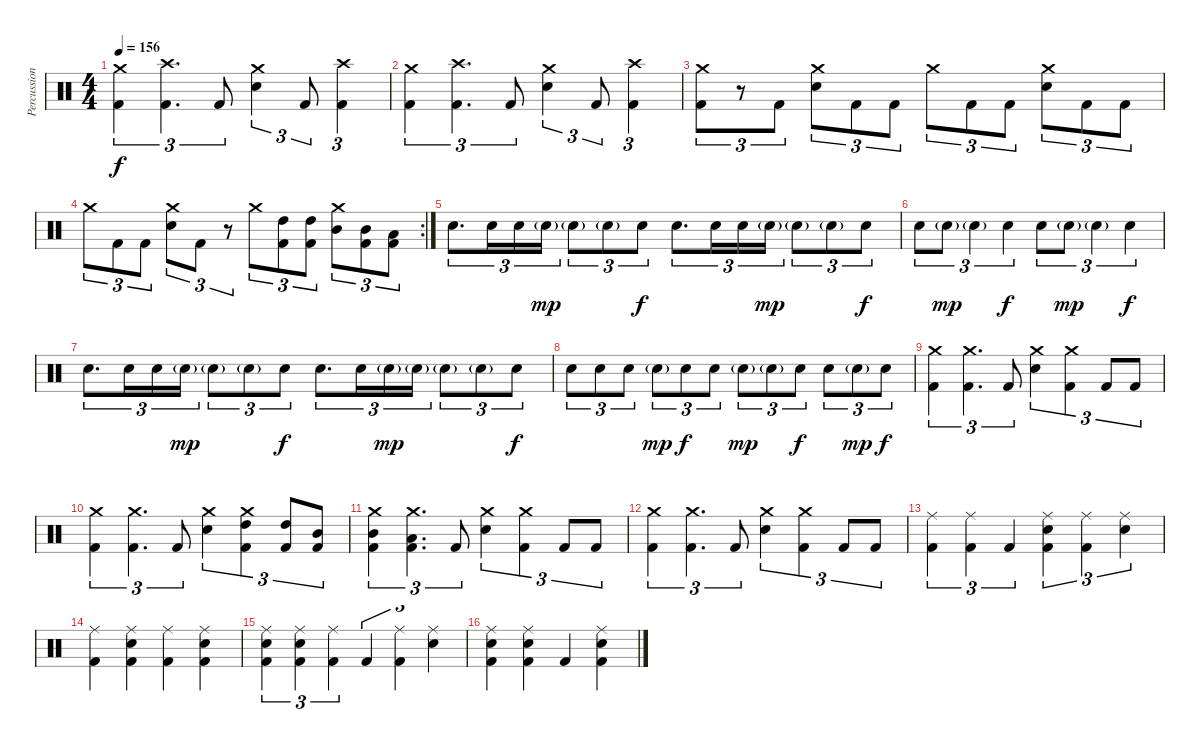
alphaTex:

\track ("Percussion" "Percussion") {instrument percussion}
\staff {score}
\articulation defaults
\ts (4 4)
\tempo 156
\clef neutral
\ks c
("Crash medium (hit)" "Kick (hit) 2").4{tu (3 2) dy f} ("Crash high (hit)" "Kick (hit) 2").4{d tu (3 2)} "Kick (hit) 2".8{tu (3 2)} ("Crash medium (hit)" "Electric Snare (hit)").4{tu (3 2)} "Kick (hit) 2".8{tu (3 2)} ("Crash high (hit)" "Kick (hit) 2").4{tu (3 2)} |
("Crash medium (hit)" "Kick (hit) 2").4{tu (3 2)} ("Crash high (hit)" "Kick (hit) 2").4{d tu (3 2)} "Kick (hit) 2".8{tu (3 2)} ("Crash medium (hit)" "Electric Snare (hit)").4{tu (3 2)} "Kick (hit) 2".8{tu (3 2)} ("Crash high (hit)" "Kick (hit) 2").4{tu (3 2)} |
("Crash medium (hit)" "Kick (hit) 2").8{tu (3 2)} r.8{tu (3 2)} "Kick (hit) 2".8{tu (3 2)} ("Crash medium (hit)" "Electric Snare (hit)").8{tu (3 2)} "Kick (hit) 2".8{tu (3 2)} "Kick (hit) 2".8{tu (3 2)} "Crash medium (hit)".8{tu (3 2)} "Kick (hit) 2".8{tu (3 2)} "Kick (hit) 2".8{tu (3 2)} ("Crash medium (hit)" "Electric Snare (hit)").8{tu (3 2)} "Kick (hit) 2".8{tu (3 2)} "Kick (hit) 2".8{tu (3 2)} |
\rc 2 "Crash medium (hit)".8{tu (3 2)} "Kick (hit) 2".8{tu (3 2)} "Kick (hit) 2".8{tu (3 2)}
("Crash medium (hit)" "Electric Snare (hit)").8{tu (3 2)} "Kick (hit) 2".8{tu (3 2)} r.8{tu (3 2)} "Crash medium (hit)".8{tu (3 2)} ("High Tom (hit)" "Kick (hit) 2").8{tu (3 2)} ("High Tom (hit)" "Kick (hit) 2").8{tu (3 2)} ("Crash medium (hit)" "Mid Tom (hit)").8{tu (3 2)} ("Mid Tom (hit)" "Kick (hit) 2").8{tu (3 2)} ("Low Tom (hit)" "Kick (hit) 2").8{tu (3 2)} |
"Electric Snare (hit)".8{d tu (3 2)} "Electric Snare (hit)".16{tu (3 2)} "Electric Snare (hit)".16{tu (3 2)} "Electric Snare (hit)"{g}.16{tu (3 2) dy mp} "Electric Snare (hit)"{g}.8{tu (3 2)} "Electric Snare (hit)"{g}.8{tu (3 2)} "Electric Snare (hit)".8{tu (3 2) dy f} "Electric Snare (hit)".8{d tu (3 2)} "Electric Snare (hit)".16{tu (3 2)} "Electric Snare (hit)".16{tu (3 2)} "Electric Snare (hit)"{g}.16{tu (3 2) dy mp} "Electric Snare (hit)"{g}.8{tu (3 2)} "Electric Snare (hit)"{g}.8{tu (3 2)} "Electric Snare (hit)".8{tu (3 2) dy f} |
"Electric Snare (hit)".8{tu (3 2)} "Electric Snare (hit)"{g}.8{tu (3 2) dy mp} "Electric Snare (hit)"{g}.4{tu (3 2)} "Electric Snare (hit)".4{tu (3 2) dy f} "Electric Snare (hit)".8{tu (3 2)} "Electric Snare (hit)"{g}.8{tu (3 2) dy mp} "Electric Snare (hit)"{g}.4{tu (3 2)} "Electric Snare (hit)".4{tu (3 2) dy f} |
"Electric Snare (hit)".8{d tu (3 2)} "Electric Snare (hit)".16{tu (3 2)} "Electric Snare (hit)".16{tu (3 2)} "Electric Snare (hit)"{g}.16{tu (3 2) dy mp} "Electric Snare (hit)"{g}.8{tu (3 2)} "Electric Snare (hit)"{g}.8{tu (3 2)} "Electric Snare (hit)".8{tu (3 2) dy f} "Electric Snare (hit)".8{d tu (3 2)} "Electric Snare (hit)".16{tu (3 2)} "Electric Snare (hit)"{g}.16{tu (3 2) dy mp} "Electric Snare (hit)"{g}.16{tu (3 2)} "Electric Snare (hit)"{g}.8{tu (3 2)} "Electric Snare (hit)"{g}.8{tu (3 2)} "Electric Snare (hit)".8{tu (3 2) dy f} |
"Electric Snare (hit)".8{tu (3 2)} "Electric Snare (hit)".8{tu (3 2)} "Electric Snare (hit)".8{tu (3 2)} "Electric Snare (hit)"{g}.8{tu (3 2) dy mp} "Electric Snare (hit)".8{tu (3 2) dy f} "Electric Snare (hit)".8{tu (3 2)} "Electric Snare (hit)"{g}.8{tu (3 2) dy mp} "Electric Snare (hit)"{g}.8{tu (3 2)} "Electric Snare (hit)".8{tu (3 2) dy f} "Electric Snare (hit)".8{tu (3 2)} "Electric Snare (hit)"{g}.8{tu (3 2) dy mp} "Electric Snare (hit)".8{tu (3 2) dy f} |
("Crash medium (hit)" "Kick (hit) 2").4{tu (3 2)} ("Crash medium (hit)" "Kick (hit) 2").4{d tu (3 2)} "Kick (hit) 2".8{tu (3 2)} ("Crash medium (hit)" "Electric Snare (hit)").4{tu (3 2)} ("Crash medium (hit)" "Kick (hit) 2").4{tu (3 2)} "Kick (hit) 2".8{tu (3 2)} "Kick (hit) 2".8{tu (3 2)} |
("Crash medium (hit)" "Kick (hit) 2").4{tu (3 2)} ("Crash medium (hit)" "Kick (hit) 2").4{d tu (3 2)} "Kick (hit) 2".8{tu (3 2)} ("Crash medium (hit)" "Electric Snare (hit)").4{tu (3 2)} ("Crash medium (hit)" "High Tom (hit)" "Kick (hit) 2").4{tu (3 2)} ("High Tom (hit)" "Kick (hit) 2").8{tu (3 2)} ("Mid Tom (hit)" "Kick (hit) 2").8{tu (3 2)} |
("Crash medium (hit)" "Mid Tom (hit)" "Kick (hit) 2").4{tu (3 2)} ("Crash medium (hit)" "Low Tom (hit)" "Kick (hit) 2").4{d tu (3 2)} "Kick (hit) 2".8{tu (3 2)} ("Crash medium (hit)" "Electric Snare (hit)").4{tu (3 2)} ("Crash medium (hit)" "Kick (hit) 2").4{tu (3 2)} "Kick (hit) 2".8{tu (3 2)} "Kick (hit) 2".8{tu (3 2)} |
("Crash medium (hit)" "Kick (hit) 2").4{tu (3 2)} ("Crash medium (hit)" "Kick (hit) 2").4{d tu (3 2)} "Kick (hit) 2".8{tu (3 2)} ("Crash medium (hit)" "Electric Snare (hit)").4{tu (3 2)} ("Crash medium (hit)" "Kick (hit) 2").4{tu (3 2)} "Kick (hit) 2".8{tu (3 2)} "Kick (hit) 2".8{tu (3 2)} |
("Ride (middle)" "Kick (hit) 2").4{tu (3 2)} ("Ride (middle)" "Kick (hit) 2").4{tu (3 2)} "Kick (hit) 2".4{tu (3 2)} ("Ride (middle)" "Electric Snare (hit)" "Kick (hit) 2").4{tu (3 2)} ("Ride (middle)" "Kick (hit) 2").4{tu (3 2)} ("Ride (middle)" "Electric Snare (hit)").4{tu (3 2)} |
("Ride (middle)" "Kick (hit) 2").4 ("Ride (middle)" "Electric Snare (hit)" "Kick (hit) 2").4 ("Ride (middle)" "Kick (hit) 2").4 ("Ride (middle)" "Electric Snare (hit)" "Kick (hit) 2").4 |
("Ride (middle)" "Electric Snare (hit)" "Kick (hit) 2").4{tu (3 2)} ("Ride (middle)" "Electric Snare (hit)" "Kick (hit) 2").4{tu (3 2)} ("Ride (middle)" "Kick (hit) 2").4{tu (3 2)} "Kick (hit) 2".4{tu (3 2)} ("Ride (middle)" "Kick (hit) 2").4{tu (3 2)} ("Ride (middle)" "Electric Snare (hit)").4{tu (3 2)} |
("Ride (middle)" "Electric Snare (hit)" "Kick (hit) 2").4 ("Ride (middle)" "Electric Snare (hit)" "Kick (hit) 2").4 "Kick (hit) 2".4 ("Ride (middle)" "Electric Snare (hit)" "Kick (hit) 2").4
